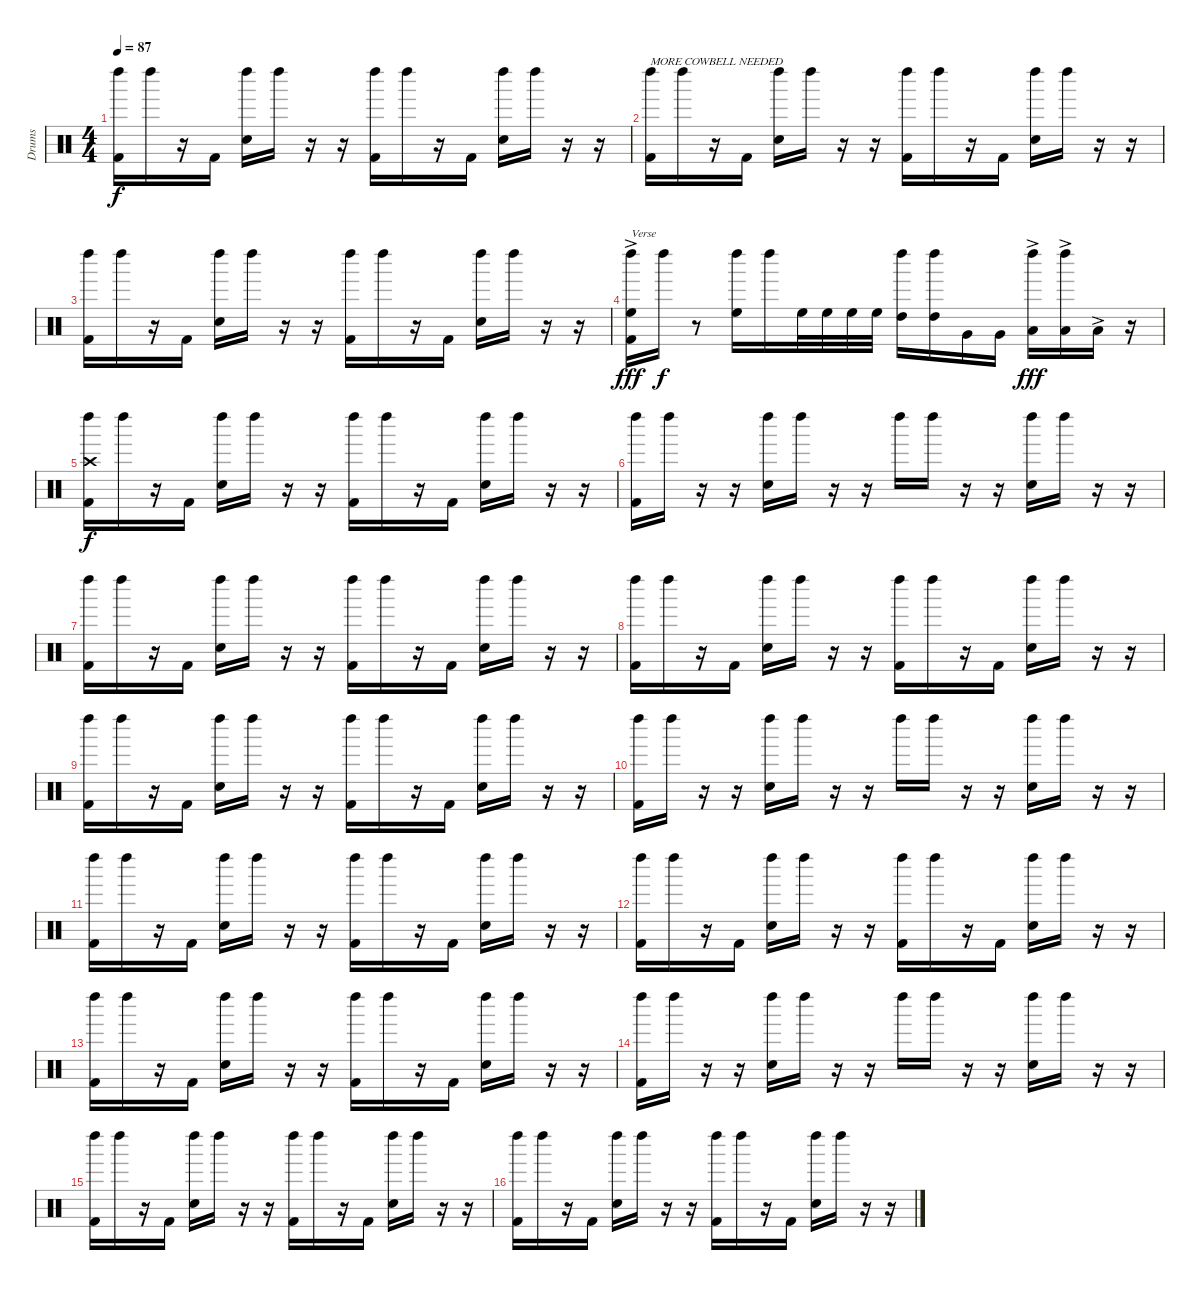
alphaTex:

\track ("Drums" "Drums") {instrument percussion}
\staff {score}
\articulation defaults
\ts (4 4)
\tempo 87
\clef neutral
\ks c
("Left Maraca (hit)" "Kick (hit) 2").16{dy f} "Left Maraca (hit)".16 r.16 "Kick (hit) 2".16 ("Left Maraca (hit)" "Hand Clap (hit)").16 "Left Maraca (hit)".16 r.16 r.16 ("Left Maraca (hit)" "Kick (hit) 2").16 "Left Maraca (hit)".16 r.16 "Kick (hit) 2".16 ("Left Maraca (hit)" "Hand Clap (hit)").16 "Left Maraca (hit)".16 r.16 r.16 |
("Left Maraca (hit)" "Kick (hit) 2").16{txt "MORE COWBELL NEEDED"} "Left Maraca (hit)".16 r.16 "Kick (hit) 2".16 ("Left Maraca (hit)" "Hand Clap (hit)").16 "Left Maraca (hit)".16 r.16 r.16 ("Left Maraca (hit)" "Kick (hit) 2").16 "Left Maraca (hit)".16 r.16 "Kick (hit) 2".16 ("Left Maraca (hit)" "Hand Clap (hit)").16 "Left Maraca (hit)".16 r.16 r.16 |
("Left Maraca (hit)" "Kick (hit) 2").16 "Left Maraca (hit)".16 r.16 "Kick (hit) 2".16 ("Left Maraca (hit)" "Hand Clap (hit)").16 "Left Maraca (hit)".16 r.16 r.16 ("Left Maraca (hit)" "Kick (hit) 2").16 "Left Maraca (hit)".16 r.16 "Kick (hit) 2".16 ("Left Maraca (hit)" "Hand Clap (hit)").16 "Left Maraca (hit)".16 r.16 r.16 |
("Left Maraca (hit)" "High Floor Tom (hit)"{ac} "Kick (hit) 2").16{txt "Verse" dy fff} "Left Maraca (hit)".16{dy f} r.8 ("Left Maraca (hit)" "High Floor Tom (hit)").16 "Left Maraca (hit)".16 "High Floor Tom (hit)".32 "High Floor Tom (hit)".32 "High Floor Tom (hit)".32 "High Floor Tom (hit)".32 ("Left Maraca (hit)" "High Tom (hit)").16 ("Left Maraca (hit)" "High Tom (hit)").16 "Very Low Tom (hit)".16 "Very Low Tom (hit)".16 ("Left Maraca (hit)" "Low Floor Tom (hit)"{ac}).16{dy fff} ("Left Maraca (hit)" "Low Floor Tom (hit)"{ac}).16 "Low Floor Tom (hit)"{ac}.16 r.16 |
("Left Maraca (hit)" "Crash high (hit)" "Kick (hit) 2").16{dy f} "Left Maraca (hit)".16 r.16 "Kick (hit) 2".16 ("Left Maraca (hit)" "Hand Clap (hit)").16 "Left Maraca (hit)".16 r.16 r.16 ("Left Maraca (hit)" "Kick (hit) 2").16 "Left Maraca (hit)".16 r.16 "Kick (hit) 2".16 ("Left Maraca (hit)" "Hand Clap (hit)").16 "Left Maraca (hit)".16 r.16 r.16 |
("Left Maraca (hit)" "Kick (hit) 2").16 "Left Maraca (hit)".16 r.16 r.16 ("Left Maraca (hit)" "Hand Clap (hit)").16 "Left Maraca (hit)".16 r.16 r.16 "Left Maraca (hit)".16 "Left Maraca (hit)".16 r.16 r.16 ("Left Maraca (hit)" "Hand Clap (hit)").16 "Left Maraca (hit)".16 r.16 r.16 |
("Left Maraca (hit)" "Kick (hit) 2").16 "Left Maraca (hit)".16 r.16 "Kick (hit) 2".16 ("Left Maraca (hit)" "Hand Clap (hit)").16 "Left Maraca (hit)".16 r.16 r.16 ("Left Maraca (hit)" "Kick (hit) 2").16 "Left Maraca (hit)".16 r.16 "Kick (hit) 2".16 ("Left Maraca (hit)" "Hand Clap (hit)").16 "Left Maraca (hit)".16 r.16 r.16 |
("Left Maraca (hit)" "Kick (hit) 2").16 "Left Maraca (hit)".16 r.16 "Kick (hit) 2".16 ("Left Maraca (hit)" "Hand Clap (hit)").16 "Left Maraca (hit)".16 r.16 r.16 ("Left Maraca (hit)" "Kick (hit) 2").16 "Left Maraca (hit)".16 r.16 "Kick (hit) 2".16 ("Left Maraca (hit)" "Hand Clap (hit)").16 "Left Maraca (hit)".16 r.16 r.16 |
("Left Maraca (hit)" "Kick (hit) 2").16 "Left Maraca (hit)".16 r.16 "Kick (hit) 2".16 ("Left Maraca (hit)" "Hand Clap (hit)").16 "Left Maraca (hit)".16 r.16 r.16 ("Left Maraca (hit)" "Kick (hit) 2").16 "Left Maraca (hit)".16 r.16 "Kick (hit) 2".16 ("Left Maraca (hit)" "Hand Clap (hit)").16 "Left Maraca (hit)".16 r.16 r.16 |
("Left Maraca (hit)" "Kick (hit) 2").16 "Left Maraca (hit)".16 r.16 r.16 ("Left Maraca (hit)" "Hand Clap (hit)").16 "Left Maraca (hit)".16 r.16 r.16 "Left Maraca (hit)".16 "Left Maraca (hit)".16 r.16 r.16 ("Left Maraca (hit)" "Hand Clap (hit)").16 "Left Maraca (hit)".16 r.16 r.16 |
("Left Maraca (hit)" "Kick (hit) 2").16 "Left Maraca (hit)".16 r.16 "Kick (hit) 2".16 ("Left Maraca (hit)" "Hand Clap (hit)").16 "Left Maraca (hit)".16 r.16 r.16 ("Left Maraca (hit)" "Kick (hit) 2").16 "Left Maraca (hit)".16 r.16 "Kick (hit) 2".16 ("Left Maraca (hit)" "Hand Clap (hit)").16 "Left Maraca (hit)".16 r.16 r.16 |
("Left Maraca (hit)" "Kick (hit) 2").16 "Left Maraca (hit)".16 r.16 "Kick (hit) 2".16 ("Left Maraca (hit)" "Hand Clap (hit)").16 "Left Maraca (hit)".16 r.16 r.16 ("Left Maraca (hit)" "Kick (hit) 2").16 "Left Maraca (hit)".16 r.16 "Kick (hit) 2".16 ("Left Maraca (hit)" "Hand Clap (hit)").16 "Left Maraca (hit)".16 r.16 r.16 |
("Left Maraca (hit)" "Kick (hit) 2").16 "Left Maraca (hit)".16 r.16 "Kick (hit) 2".16 ("Left Maraca (hit)" "Hand Clap (hit)").16 "Left Maraca (hit)".16 r.16 r.16 ("Left Maraca (hit)" "Kick (hit) 2").16 "Left Maraca (hit)".16 r.16 "Kick (hit) 2".16 ("Left Maraca (hit)" "Hand Clap (hit)").16 "Left Maraca (hit)".16 r.16 r.16 |
("Left Maraca (hit)" "Kick (hit) 2").16 "Left Maraca (hit)".16 r.16 r.16 ("Left Maraca (hit)" "Hand Clap (hit)").16 "Left Maraca (hit)".16 r.16 r.16 "Left Maraca (hit)".16 "Left Maraca (hit)".16 r.16 r.16 ("Left Maraca (hit)" "Hand Clap (hit)").16 "Left Maraca (hit)".16 r.16 r.16 |
("Left Maraca (hit)" "Kick (hit) 2").16 "Left Maraca (hit)".16 r.16 "Kick (hit) 2".16 ("Left Maraca (hit)" "Hand Clap (hit)").16 "Left Maraca (hit)".16 r.16 r.16 ("Left Maraca (hit)" "Kick (hit) 2").16 "Left Maraca (hit)".16 r.16 "Kick (hit) 2".16 ("Left Maraca (hit)" "Hand Clap (hit)").16 "Left Maraca (hit)".16 r.16 r.16 |
("Left Maraca (hit)" "Kick (hit) 2").16 "Left Maraca (hit)".16 r.16 "Kick (hit) 2".16 ("Left Maraca (hit)" "Hand Clap (hit)").16 "Left Maraca (hit)".16 r.16 r.16 ("Left Maraca (hit)" "Kick (hit) 2").16 "Left Maraca (hit)".16 r.16 "Kick (hit) 2".16 ("Left Maraca (hit)" "Hand Clap (hit)").16 "Left Maraca (hit)".16 r.16 r.16
